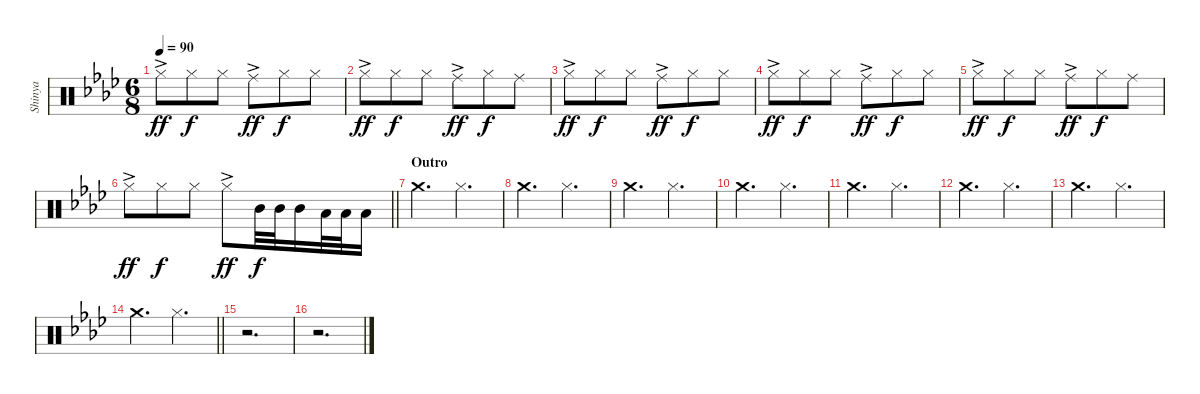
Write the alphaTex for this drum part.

\track ("Shinya" "Shinya") {instrument percussion}
\staff {score}
\articulation defaults
\ts (6 8)
\tempo 90
\clef neutral
\ks fminor "Hi-Hat (closed)"{ac}.8{dy ff} "Hi-Hat (closed)".8{dy f} "Hi-Hat (closed)".8 "Ride (middle)"{ac}.8{dy ff} "Hi-Hat (closed)".8{dy f} "Hi-Hat (closed)".8
|
"Hi-Hat (closed)"{ac}.8{dy ff} "Hi-Hat (closed)".8{dy f} "Hi-Hat (closed)".8 "Ride (middle)"{ac}.8{dy ff} "Hi-Hat (closed)".8{dy f} "Ride (middle)".8 |
"Hi-Hat (closed)"{ac}.8{dy ff} "Hi-Hat (closed)".8{dy f} "Hi-Hat (closed)".8 "Ride (middle)"{ac}.8{dy ff} "Hi-Hat (closed)".8{dy f} "Hi-Hat (closed)".8 |
"Hi-Hat (closed)"{ac}.8{dy ff} "Hi-Hat (closed)".8{dy f} "Hi-Hat (closed)".8 "Ride (middle)"{ac}.8{dy ff} "Hi-Hat (closed)".8{dy f} "Hi-Hat (closed)".8 |
"Hi-Hat (closed)"{ac}.8{dy ff} "Hi-Hat (closed)".8{dy f} "Hi-Hat (closed)".8 "Ride (middle)"{ac}.8{dy ff} "Hi-Hat (closed)".8{dy f} "Ride (middle)".8 |
\barLineRight lightlight "Hi-Hat (closed)"{ac}.8{dy ff} "Hi-Hat (closed)".8{dy f} "Hi-Hat (closed)".8 "Hi-Hat (closed)"{ac}.8{dy ff} "Mid Tom (hit)".32{dy f} "Mid Tom (hit)".32 "Mid Tom (hit)".16 "Low Tom (hit)".32 "Low Tom (hit)".32 "Low Tom (hit)".16
|
\section ("" "Outro")
"Crash medium (hit)".4{d} "Hi-Hat (closed)".4{d} |
"Crash medium (hit)".4{d} "Hi-Hat (closed)".4{d} |
"Crash medium (hit)".4{d} "Hi-Hat (closed)".4{d} |
"Crash medium (hit)".4{d} "Hi-Hat (closed)".4{d} |
"Crash medium (hit)".4{d} "Hi-Hat (closed)".4{d} |
"Crash medium (hit)".4{d} "Hi-Hat (closed)".4{d} |
"Crash medium (hit)".4{d} "Hi-Hat (closed)".4{d} |
\barLineRight lightlight "Crash medium (hit)".4{d} "Hi-Hat (closed)".4{d}
|
r.2{d} |
r.2{d}
